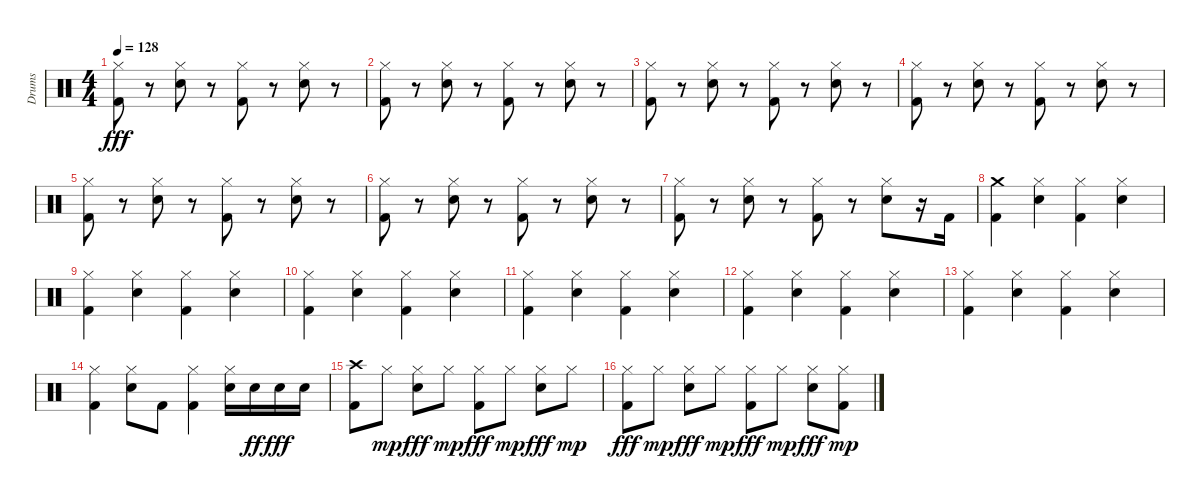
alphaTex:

\track ("Drums" "Drums") {instrument percussion}
\staff {score}
\articulation defaults
\ts (4 4)
\tempo 128
\clef neutral
\ks c
("Hi-Hat (closed)" "Kick (hit) 2").8{dy fff} r.8 ("Hi-Hat (closed)" "Snare (hit) 2").8 r.8 ("Hi-Hat (closed)" "Kick (hit) 2").8 r.8 ("Hi-Hat (closed)" "Snare (hit) 2").8 r.8 |
("Hi-Hat (closed)" "Kick (hit) 2").8 r.8 ("Hi-Hat (closed)" "Snare (hit) 2").8 r.8 ("Hi-Hat (closed)" "Kick (hit) 2").8 r.8 ("Hi-Hat (closed)" "Snare (hit) 2").8 r.8 |
("Hi-Hat (closed)" "Kick (hit) 2").8 r.8 ("Hi-Hat (closed)" "Snare (hit) 2").8 r.8 ("Hi-Hat (closed)" "Kick (hit) 2").8 r.8 ("Hi-Hat (closed)" "Snare (hit) 2").8 r.8 |
("Hi-Hat (closed)" "Kick (hit) 2").8 r.8 ("Hi-Hat (closed)" "Snare (hit) 2").8 r.8 ("Hi-Hat (closed)" "Kick (hit) 2").8 r.8 ("Hi-Hat (closed)" "Snare (hit) 2").8 r.8 |
("Hi-Hat (closed)" "Kick (hit) 2").8 r.8 ("Hi-Hat (closed)" "Snare (hit) 2").8 r.8 ("Hi-Hat (closed)" "Kick (hit) 2").8 r.8 ("Hi-Hat (closed)" "Snare (hit) 2").8 r.8 |
("Hi-Hat (closed)" "Kick (hit) 2").8 r.8 ("Hi-Hat (closed)" "Snare (hit) 2").8 r.8 ("Hi-Hat (closed)" "Kick (hit) 2").8 r.8 ("Hi-Hat (closed)" "Snare (hit) 2").8 r.8 |
("Hi-Hat (closed)" "Kick (hit) 2").8 r.8 ("Hi-Hat (closed)" "Snare (hit) 2").8 r.8 ("Hi-Hat (closed)" "Kick (hit) 2").8 r.8 ("Hi-Hat (closed)" "Snare (hit) 2").8 r.16 "Kick (hit) 2".16 |
("Crash medium (hit)" "Kick (hit) 2").4 ("Hi-Hat (closed)" "Snare (hit) 2").4 ("Hi-Hat (closed)" "Kick (hit) 2").4 ("Hi-Hat (closed)" "Snare (hit) 2").4 |
("Hi-Hat (closed)" "Kick (hit) 2").4 ("Hi-Hat (closed)" "Snare (hit) 2").4 ("Hi-Hat (closed)" "Kick (hit) 2").4 ("Hi-Hat (closed)" "Snare (hit) 2").4 |
("Hi-Hat (closed)" "Kick (hit) 2").4 ("Hi-Hat (closed)" "Snare (hit) 2").4 ("Hi-Hat (closed)" "Kick (hit) 2").4 ("Hi-Hat (closed)" "Snare (hit) 2").4 |
("Hi-Hat (closed)" "Kick (hit) 2").4 ("Hi-Hat (closed)" "Snare (hit) 2").4 ("Hi-Hat (closed)" "Kick (hit) 2").4 ("Hi-Hat (closed)" "Snare (hit) 2").4 |
("Hi-Hat (closed)" "Kick (hit) 2").4 ("Hi-Hat (closed)" "Snare (hit) 2").4 ("Hi-Hat (closed)" "Kick (hit) 2").4 ("Hi-Hat (closed)" "Snare (hit) 2").4 |
("Hi-Hat (closed)" "Kick (hit) 2").4 ("Hi-Hat (closed)" "Snare (hit) 2").4 ("Hi-Hat (closed)" "Kick (hit) 2").4 ("Hi-Hat (closed)" "Snare (hit) 2").4 |
("Hi-Hat (closed)" "Kick (hit) 2").4 ("Hi-Hat (closed)" "Snare (hit) 2").8 "Kick (hit) 2".8 ("Hi-Hat (closed)" "Kick (hit) 2").4 ("Hi-Hat (closed)" "Snare (hit) 2").16 "Snare (hit) 2".16{dy ff} "Snare (hit) 2".16{dy fff} "Snare (hit) 2".16 |
("Crash high (hit)" "Kick (hit) 2").8 "Hi-Hat (closed)".8{dy mp} ("Hi-Hat (closed)" "Snare (hit) 2").8{dy fff} "Hi-Hat (closed)".8{dy mp} ("Hi-Hat (closed)" "Kick (hit) 2").8{dy fff} "Hi-Hat (closed)".8{dy mp} ("Hi-Hat (closed)" "Snare (hit) 2").8{dy fff} "Hi-Hat (closed)".8{dy mp} |
("Hi-Hat (closed)" "Kick (hit) 2").8{dy fff} "Hi-Hat (closed)".8{dy mp} ("Hi-Hat (closed)" "Snare (hit) 2").8{dy fff} "Hi-Hat (closed)".8{dy mp} ("Hi-Hat (closed)" "Kick (hit) 2").8{dy fff} "Hi-Hat (closed)".8{dy mp} ("Hi-Hat (closed)" "Snare (hit) 2").8{dy fff} ("Kick (hit) 2" "Hi-Hat (closed)").8{dy mp}
